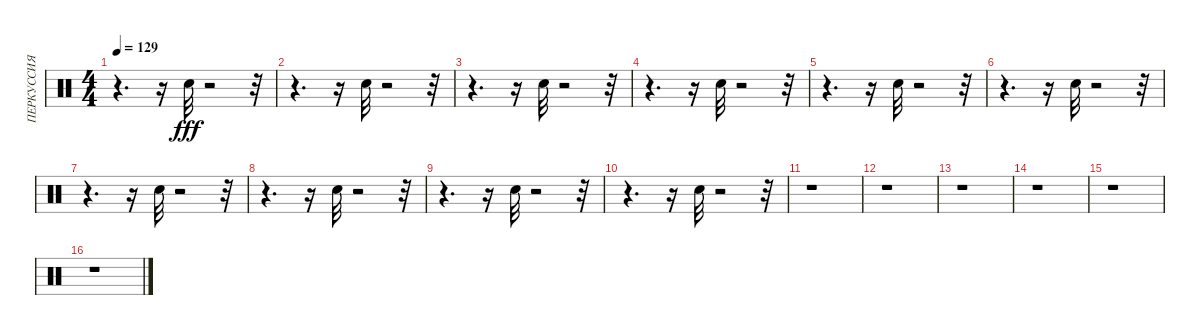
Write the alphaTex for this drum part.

\track ("ПЕРКУССИЯ" "ПЕРКУССИЯ") {instrument percussion}
\staff {score}
\articulation defaults
\ts (4 4)
\tempo 129
\clef neutral
\ks c
r.4{d dy fff} r.16 "Snare (hit) 2".32 r.2 r.32 |
r.4{d} r.16 "Snare (hit) 2".32 r.2 r.32 |
r.4{d} r.16 "Snare (hit) 2".32 r.2 r.32 |
r.4{d} r.16 "Snare (hit) 2".32 r.2 r.32 |
r.4{d} r.16 "Snare (hit) 2".32 r.2 r.32 |
r.4{d} r.16 "Snare (hit) 2".32 r.2 r.32 |
r.4{d} r.16 "Snare (hit) 2".32 r.2 r.32 |
r.4{d} r.16 "Snare (hit) 2".32 r.2 r.32 |
r.4{d} r.16 "Snare (hit) 2".32 r.2 r.32 |
r.4{d} r.16 "Snare (hit) 2".32 r.2 r.32 |
r.1 |
r.1 |
r.1 |
r.1 |
r.1 |
r.1
